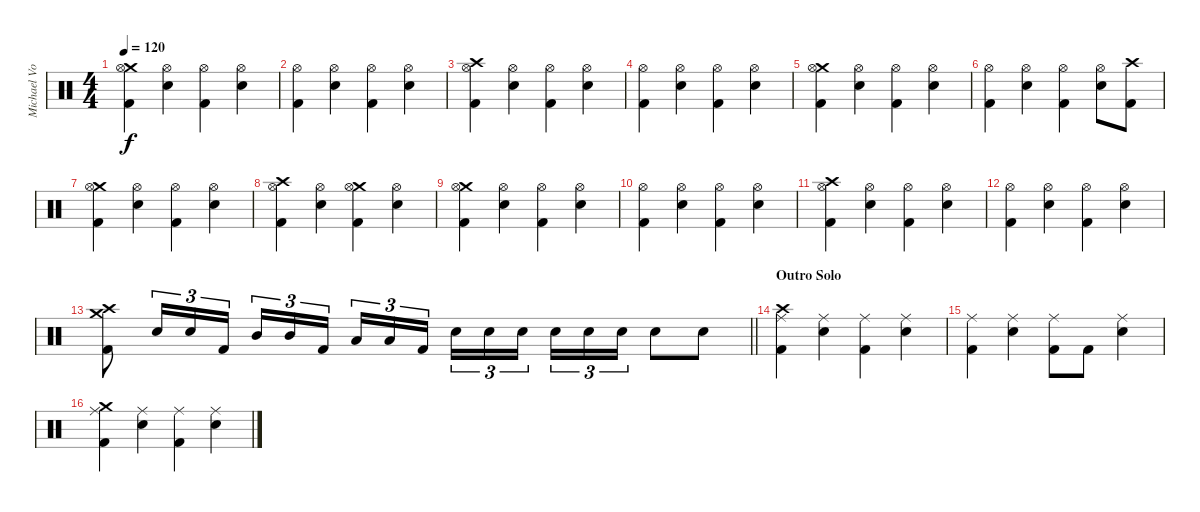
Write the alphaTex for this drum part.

\track ("Michael Von Knorring" "Michael Vo") {instrument percussion}
\staff {score}
\articulation defaults
\ts (4 4)
\tempo 120
\clef neutral
\ks c
("Crash medium (hit)" "Hi-Hat (open)" "Kick (hit) 2").4{dy f} ("Hi-Hat (open)" "Snare (hit) 2").4 ("Hi-Hat (open)" "Kick (hit) 2").4 ("Hi-Hat (open)" "Snare (hit) 2").4 |
("Hi-Hat (open)" "Kick (hit) 2").4 ("Hi-Hat (open)" "Snare (hit) 2").4 ("Hi-Hat (open)" "Kick (hit) 2").4 ("Hi-Hat (open)" "Snare (hit) 2").4 |
("Crash high (hit)" "Hi-Hat (open)" "Kick (hit) 2").4 ("Hi-Hat (open)" "Snare (hit) 2").4 ("Hi-Hat (open)" "Kick (hit) 2").4 ("Hi-Hat (open)" "Snare (hit) 2").4 |
("Hi-Hat (open)" "Kick (hit) 2").4 ("Hi-Hat (open)" "Snare (hit) 2").4 ("Hi-Hat (open)" "Kick (hit) 2").4 ("Hi-Hat (open)" "Snare (hit) 2").4 |
("Crash medium (hit)" "Hi-Hat (open)" "Kick (hit) 2").4 ("Hi-Hat (open)" "Snare (hit) 2").4 ("Hi-Hat (open)" "Kick (hit) 2").4 ("Hi-Hat (open)" "Snare (hit) 2").4 |
("Hi-Hat (open)" "Kick (hit) 2").4 ("Hi-Hat (open)" "Snare (hit) 2").4 ("Hi-Hat (open)" "Kick (hit) 2").4 ("Hi-Hat (open)" "Snare (hit) 2").8 ("Crash high (hit)" "Kick (hit) 2").8 |
("Crash medium (hit)" "Hi-Hat (open)" "Kick (hit) 2").4 ("Hi-Hat (open)" "Snare (hit) 2").4 ("Hi-Hat (open)" "Kick (hit) 2").4 ("Hi-Hat (open)" "Snare (hit) 2").4 |
("Crash high (hit)" "Hi-Hat (open)" "Kick (hit) 2").4 ("Hi-Hat (open)" "Snare (hit) 2").4 ("Crash medium (hit)" "Hi-Hat (open)" "Kick (hit) 2").4 ("Hi-Hat (open)" "Snare (hit) 2").4 |
("Crash medium (hit)" "Hi-Hat (open)" "Kick (hit) 2").4 ("Hi-Hat (open)" "Snare (hit) 2").4 ("Hi-Hat (open)" "Kick (hit) 2").4 ("Hi-Hat (open)" "Snare (hit) 2").4 |
("Hi-Hat (open)" "Kick (hit) 2").4 ("Hi-Hat (open)" "Snare (hit) 2").4 ("Hi-Hat (open)" "Kick (hit) 2").4 ("Hi-Hat (open)" "Snare (hit) 2").4 |
("Crash high (hit)" "Hi-Hat (open)" "Kick (hit) 2").4 ("Hi-Hat (open)" "Snare (hit) 2").4 ("Hi-Hat (open)" "Kick (hit) 2").4 ("Hi-Hat (open)" "Snare (hit) 2").4 |
("Hi-Hat (open)" "Kick (hit) 2").4 ("Hi-Hat (open)" "Snare (hit) 2").4 ("Hi-Hat (open)" "Kick (hit) 2").4 ("Hi-Hat (open)" "Snare (hit) 2").4 |
\barLineRight lightlight
("Crash medium (hit)" "Crash high (hit)" "Kick (hit) 2").8 "Snare (hit) 2".16{tu (3 2)} "Snare (hit) 2".16{tu (3 2)} "Kick (hit) 2".16{tu (3 2)} "Mid Tom (hit)".16{tu (3 2)} "Mid Tom (hit)".16{tu (3 2)} "Kick (hit) 2".16{tu (3 2) beam splitsecondary} "Low Tom (hit)".16{tu (3 2)} "Low Tom (hit)".16{tu (3 2)} "Kick (hit) 2".16{tu (3 2)} "Snare (hit) 2".16{tu (3 2)} "Snare (hit) 2".16{tu (3 2)} "Snare (hit) 2".16{tu (3 2) beam splitsecondary} "Snare (hit) 2".16{tu (3 2)} "Snare (hit) 2".16{tu (3 2)} "Snare (hit) 2".16{tu (3 2)} "Snare (hit) 2".8 "Snare (hit) 2".8 |
\section ("" "Outro Solo")
("Crash high (hit)" "Ride (middle)" "Kick (hit) 2").4 ("Ride (middle)" "Snare (hit) 2").4 ("Ride (middle)" "Kick (hit) 2").4 ("Ride (middle)" "Snare (hit) 2").4 |
("Ride (middle)" "Kick (hit) 2").4 ("Ride (middle)" "Snare (hit) 2").4 ("Ride (middle)" "Kick (hit) 2").8 "Kick (hit) 2".8 ("Ride (middle)" "Snare (hit) 2").4 |
("Crash medium (hit)" "Ride (middle)" "Kick (hit) 2").4 ("Ride (middle)" "Snare (hit) 2").4 ("Ride (middle)" "Kick (hit) 2").4 ("Ride (middle)" "Snare (hit) 2").4
